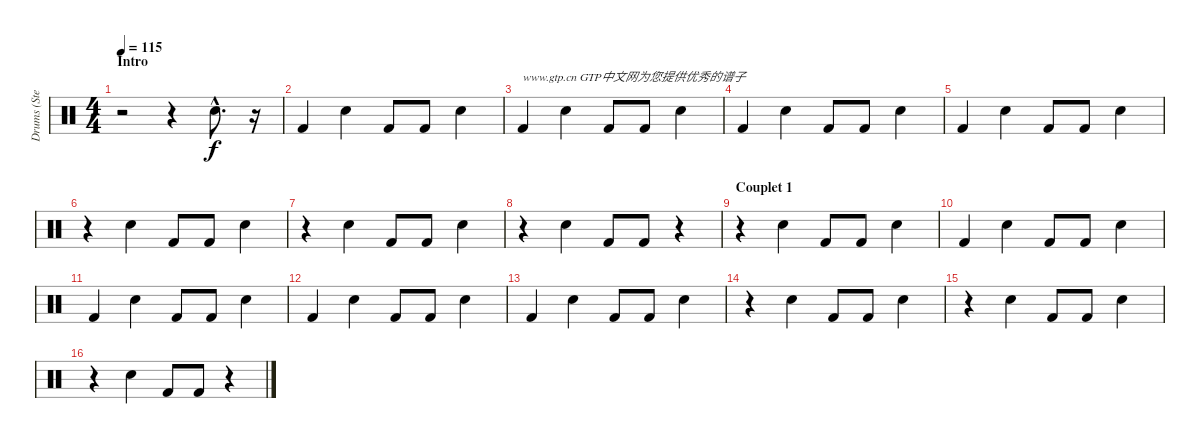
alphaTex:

\track ("Drums (Stewart)           " "Drums (Ste") {instrument percussion}
\staff {score}
\articulation defaults
\ts (4 4)
\section ("" "Intro")
\tempo 115
\clef neutral
\ks c
r.2{dy f} r.4 "Snare (hit) 2"{hac}.8{d} r.16 |
"Kick (hit) 2".4 "Snare (hit) 2".4 "Kick (hit) 2".8 "Kick (hit) 2".8 "Snare (hit) 2".4 |
"Kick (hit) 2".4{txt "www.gtp.cn GTP中文网为您提供优秀的谱子"} "Snare (hit) 2".4 "Kick (hit) 2".8 "Kick (hit) 2".8 "Snare (hit) 2".4 |
"Kick (hit) 2".4 "Snare (hit) 2".4 "Kick (hit) 2".8 "Kick (hit) 2".8 "Snare (hit) 2".4 |
"Kick (hit) 2".4 "Snare (hit) 2".4 "Kick (hit) 2".8 "Kick (hit) 2".8 "Snare (hit) 2".4 |
r.4 "Snare (hit) 2".4 "Kick (hit) 2".8 "Kick (hit) 2".8 "Snare (hit) 2".4 |
r.4 "Snare (hit) 2".4 "Kick (hit) 2".8 "Kick (hit) 2".8 "Snare (hit) 2".4 |
r.4 "Snare (hit) 2".4 "Kick (hit) 2".8 "Kick (hit) 2".8 r.4 |
\section ("" "Couplet 1")
r.4 "Snare (hit) 2".4 "Kick (hit) 2".8 "Kick (hit) 2".8 "Snare (hit) 2".4 |
"Kick (hit) 2".4 "Snare (hit) 2".4 "Kick (hit) 2".8 "Kick (hit) 2".8 "Snare (hit) 2".4 |
"Kick (hit) 2".4 "Snare (hit) 2".4 "Kick (hit) 2".8 "Kick (hit) 2".8 "Snare (hit) 2".4 |
"Kick (hit) 2".4 "Snare (hit) 2".4 "Kick (hit) 2".8 "Kick (hit) 2".8 "Snare (hit) 2".4 |
"Kick (hit) 2".4 "Snare (hit) 2".4 "Kick (hit) 2".8 "Kick (hit) 2".8 "Snare (hit) 2".4 |
r.4 "Snare (hit) 2".4 "Kick (hit) 2".8 "Kick (hit) 2".8 "Snare (hit) 2".4 |
r.4 "Snare (hit) 2".4 "Kick (hit) 2".8 "Kick (hit) 2".8 "Snare (hit) 2".4 |
r.4 "Snare (hit) 2".4 "Kick (hit) 2".8 "Kick (hit) 2".8 r.4
